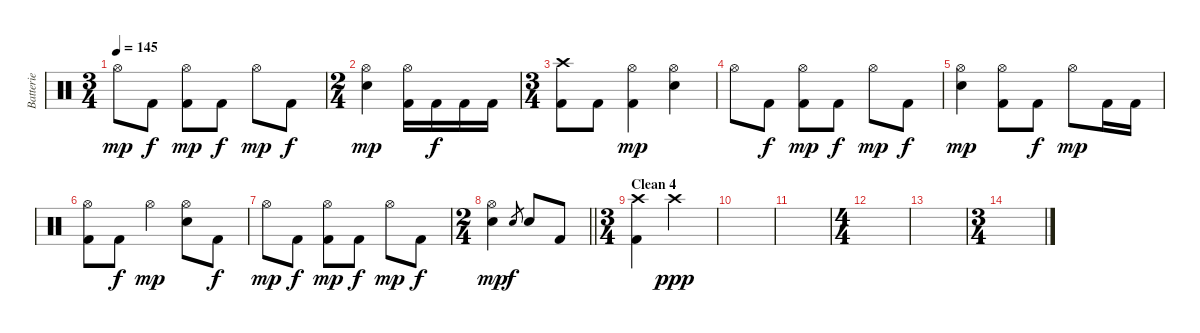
\track ("Batterie" "Batterie") {instrument percussion}
\staff {score}
\articulation defaults
\ts (3 4)
\tempo 145
\clef neutral
\ks c "Hi-Hat (open)".8{dy mp} "Kick (hit) 2".8{dy f}
("Hi-Hat (open)" "Kick (hit) 2").8{dy mp} "Kick (hit) 2".8{dy f} "Hi-Hat (open)".8{dy mp} "Kick (hit) 2".8{dy f} |
\ts (2 4)
("Hi-Hat (open)" "Electric Snare (hit)").4{dy mp} ("Hi-Hat (open)" "Kick (hit) 2").16 "Kick (hit) 2".16{dy f} "Kick (hit) 2".16 "Kick (hit) 2".16 |
\ts (3 4)
("Crash high (hit)" "Kick (hit) 2").8 "Kick (hit) 2".8 ("Hi-Hat (open)" "Kick (hit) 2").4{dy mp} ("Hi-Hat (open)" "Electric Snare (hit)").4 |
"Hi-Hat (open)".8 "Kick (hit) 2".8{dy f} ("Hi-Hat (open)" "Kick (hit) 2").8{dy mp} "Kick (hit) 2".8{dy f} "Hi-Hat (open)".8{dy mp} "Kick (hit) 2".8{dy f} |
("Hi-Hat (open)" "Electric Snare (hit)").4{dy mp} ("Hi-Hat (open)" "Kick (hit) 2").8 "Kick (hit) 2".8{dy f} "Hi-Hat (open)".8{dy mp} "Kick (hit) 2".16 "Kick (hit) 2".16 |
("Hi-Hat (open)" "Kick (hit) 2").8 "Kick (hit) 2".8{dy f} "Hi-Hat (open)".4{dy mp} ("Hi-Hat (open)" "Electric Snare (hit)").8 "Kick (hit) 2".8{dy f} |
"Hi-Hat (open)".8{dy mp} "Kick (hit) 2".8{dy f} ("Hi-Hat (open)" "Kick (hit) 2").8{dy mp} "Kick (hit) 2".8{dy f} "Hi-Hat (open)".8{dy mp} "Kick (hit) 2".8{dy f} |
\ts (2 4)
\barLineRight lightlight
("Hi-Hat (open)" "Electric Snare (hit)").4{dy mp} "Electric Snare (hit)".8{gr dy f} "Electric Snare (hit)".8 "Kick (hit) 2".8 |
\ts (3 4)
\section ("" "Clean 4")
("Crash high (hit)" "Kick (hit) 2").4 "Crash high (hit)".2{dy ppp} |
|
|
\ts (4 4)
|
|
\ts (3 4)
